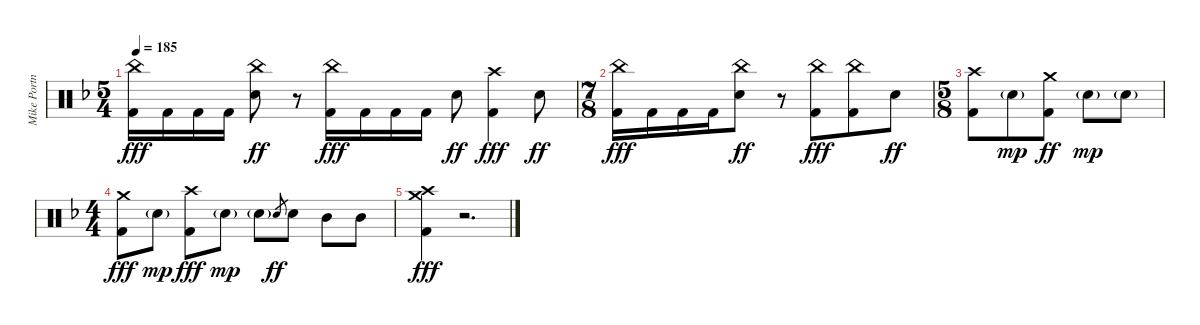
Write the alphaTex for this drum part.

\track ("Mike Portnoy" "Mike Portn") {instrument percussion}
\staff {score}
\articulation defaults
\ts (5 4)
\tempo 185
\clef neutral
\ks f
("China (hit)" "Kick (hit) 2").16{dy fff} "Kick (hit) 2".16 "Kick (hit) 2".16 "Kick (hit) 2".16 ("China (hit)" "Electric Snare (hit)").8{dy ff} r.8 ("China (hit)" "Kick (hit) 2").16{dy fff} "Kick (hit) 2".16 "Kick (hit) 2".16 "Kick (hit) 2".16 "Electric Snare (hit)".8{dy ff} ("Crash high (hit)" "Kick (hit) 2").4{dy fff} "Electric Snare (hit)".8{dy ff} |
\ts (7 8)
("China (hit)" "Kick (hit) 2").16{dy fff} "Kick (hit) 2".16 "Kick (hit) 2".16 "Kick (hit) 2".16 ("China (hit)" "Electric Snare (hit)").8{dy ff} r.8 ("China (hit)" "Kick (hit) 2").8{dy fff} ("China (hit)" "Kick (hit) 2").8 "Electric Snare (hit)".8{dy ff} |
\ts (5 8)
("Crash high (hit)" "Kick (hit) 2").8 "Electric Snare (hit)"{g}.8{dy mp} ("Crash medium (hit)" "Kick (hit) 2").8{dy ff} "Electric Snare (hit)"{g}.8{dy mp} "Electric Snare (hit)"{g}.8 |
\ts (4 4)
("Crash medium (hit)" "Kick (hit) 2").8{dy fff} "Electric Snare (hit)"{g}.8{dy mp} ("Crash high (hit)" "Kick (hit) 2").8{dy fff} "Electric Snare (hit)"{g}.8{dy mp} "Electric Snare (hit)"{g}.8 "Electric Snare (hit)".8{gr dy ff} "Electric Snare (hit)".8 "Mid Tom (hit)".8 "Mid Tom (hit)".8 |
("Crash high (hit)" "Crash medium (hit)" "Kick (hit) 2").4{dy fff} r.2{d}
